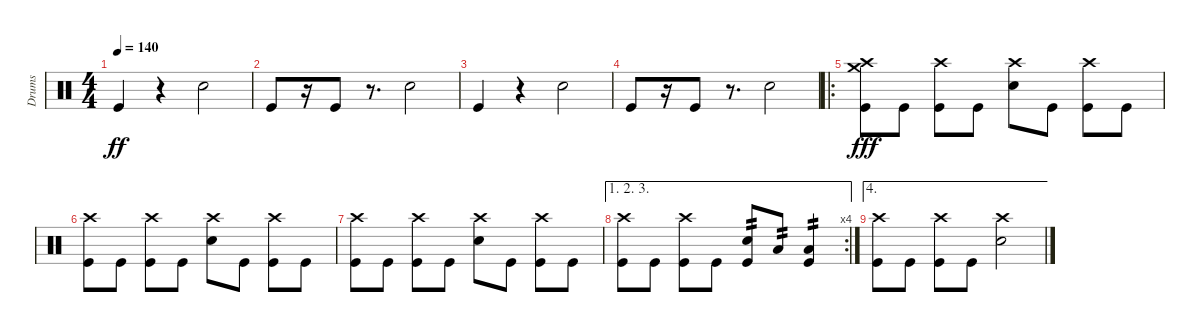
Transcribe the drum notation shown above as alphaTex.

\track ("Drums" "Drums") {instrument percussion}
\staff {score}
\articulation defaults
\ts (4 4)
\tempo 140
\clef neutral
\ks c "Kick (hit)".4{dy ff}
r.4 "Electric Snare (hit)".2 |
"Kick (hit)".8 r.16 "Kick (hit)".8 r.8{d} "Electric Snare (hit)".2 |
"Kick (hit)".4 r.4 "Electric Snare (hit)".2 |
"Kick (hit)".8 r.16 "Kick (hit)".8 r.8{d} "Electric Snare (hit)".2 |
\ro
("Crash medium (hit)" "Crash high (hit)" "Kick (hit)").8{dy fff} "Kick (hit)".8 ("Crash high (hit)" "Kick (hit)").8 "Kick (hit)".8 ("Crash high (hit)" "Electric Snare (hit)").8 "Kick (hit)".8 ("Crash high (hit)" "Kick (hit)").8 "Kick (hit)".8 |
("Crash high (hit)" "Kick (hit)").8 "Kick (hit)".8 ("Crash high (hit)" "Kick (hit)").8 "Kick (hit)".8 ("Crash high (hit)" "Electric Snare (hit)").8 "Kick (hit)".8 ("Crash high (hit)" "Kick (hit)").8 "Kick (hit)".8 |
("Crash high (hit)" "Kick (hit)").8 "Kick (hit)".8 ("Crash high (hit)" "Kick (hit)").8 "Kick (hit)".8 ("Crash high (hit)" "Electric Snare (hit)").8 "Kick (hit)".8 ("Crash high (hit)" "Kick (hit)").8 "Kick (hit)".8 |
\ae (1 2 3)
\rc 4
("Crash high (hit)" "Kick (hit)").8 "Kick (hit)".8 ("Crash high (hit)" "Kick (hit)").8 "Kick (hit)".8 ("Electric Snare (hit)" "Kick (hit)").8{tp 2} "Low Floor Tom (hit)".8{tp 2} ("Low Floor Tom (hit)" "Kick (hit)").4{tp 2} |
\ae 4
("Crash high (hit)" "Kick (hit)").8 "Kick (hit)".8 ("Crash high (hit)" "Kick (hit)").8 "Kick (hit)".8 ("Crash high (hit)" "Electric Snare (hit)").2
